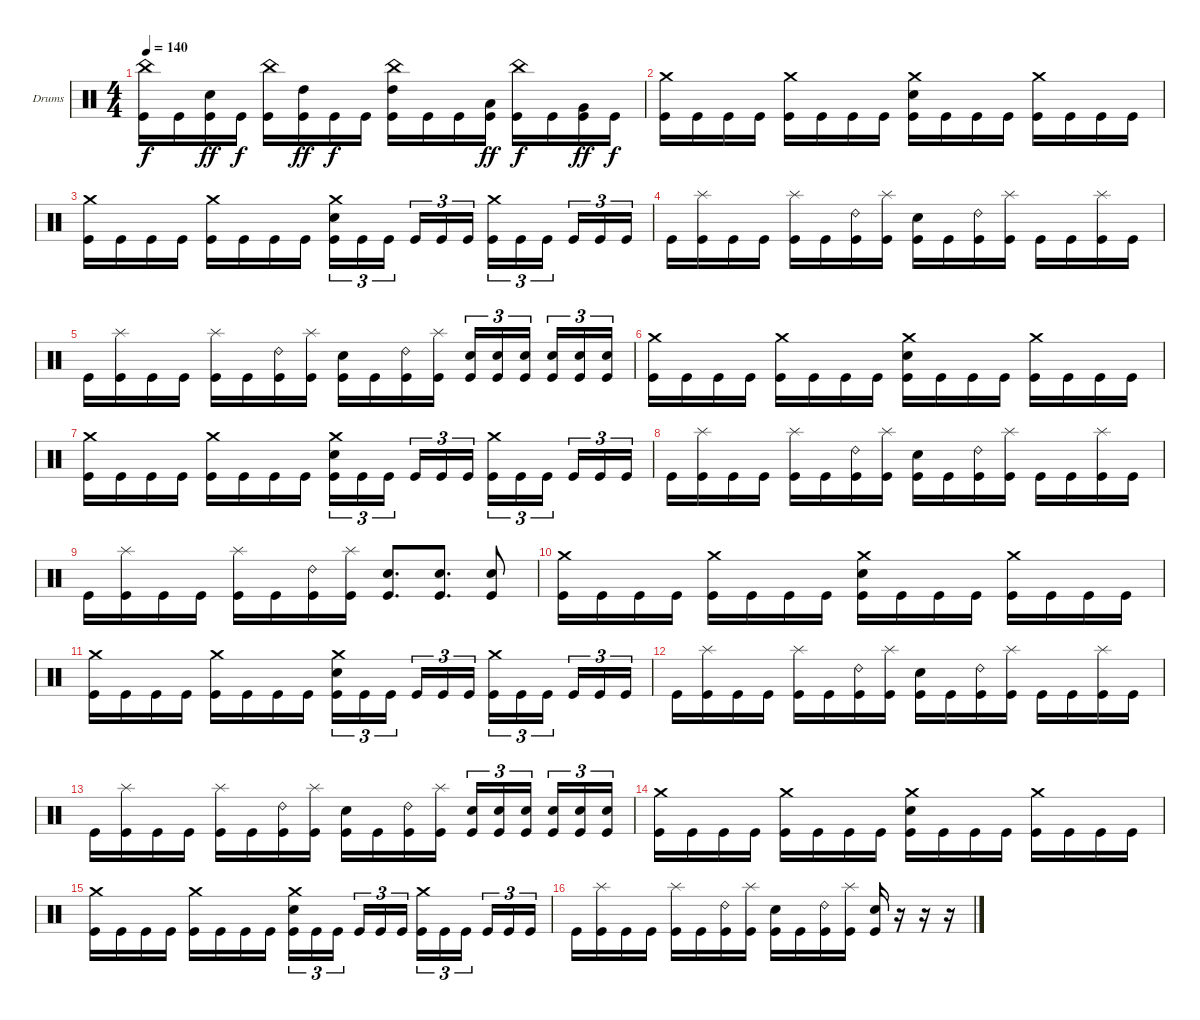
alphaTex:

\defaultSystemsLayout 4
\bracketExtendMode groupsimilarinstruments
\firstSystemTrackNameOrientation horizontal
\otherSystemsTrackNameOrientation horizontal
\track ("Drumkit" "Drums") {instrument percussion}
\staff {score}
\articulation defaults
\ts (4 4)
\tempo 140
\clef neutral
\ks c
("China (hit)" "Kick (hit)").16{dy f} "Kick (hit)".16 ("Snare (hit) 2" "Kick (hit)").16{dy ff} "Kick (hit)".16{dy f} ("China (hit)" "Kick (hit)").16 ("High Tom (hit)" "Kick (hit)").16{dy ff} "Kick (hit)".16{dy f} "Kick (hit)".16 ("China (hit)" "High Tom (hit)" "Kick (hit)").16 "Kick (hit)".16 "Kick (hit)".16 ("Low Tom (hit)" "Kick (hit)").16{dy ff} ("China (hit)" "Kick (hit)").16{dy f} "Kick (hit)".16 ("Very Low Tom (hit)" "Kick (hit)").16{dy ff} "Kick (hit)".16{dy f} |
("Crash medium (hit)" "Kick (hit)").16 "Kick (hit)".16 "Kick (hit)".16 "Kick (hit)".16 ("Crash medium (hit)" "Kick (hit)").16 "Kick (hit)".16 "Kick (hit)".16 "Kick (hit)".16 ("Crash medium (hit)" "Snare (hit) 2" "Kick (hit)").16 "Kick (hit)".16 "Kick (hit)".16 "Kick (hit)".16 ("Crash medium (hit)" "Kick (hit)").16 "Kick (hit)".16 "Kick (hit)".16 "Kick (hit)".16 |
("Crash medium (hit)" "Kick (hit)").16 "Kick (hit)".16 "Kick (hit)".16 "Kick (hit)".16 ("Crash medium (hit)" "Kick (hit)").16 "Kick (hit)".16 "Kick (hit)".16 "Kick (hit)".16 ("Crash medium (hit)" "Snare (hit) 2" "Kick (hit)").16{tu (3 2)} "Kick (hit)".16{tu (3 2)} "Kick (hit)".16{tu (3 2)} "Kick (hit)".16{tu (3 2)} "Kick (hit)".16{tu (3 2)} "Kick (hit)".16{tu (3 2)} ("Crash medium (hit)" "Kick (hit)").16{tu (3 2)} "Kick (hit)".16{tu (3 2)} "Kick (hit)".16{tu (3 2)} "Kick (hit)".16{tu (3 2)} "Kick (hit)".16{tu (3 2)} "Kick (hit)".16{tu (3 2)} |
"Kick (hit)".16 ("Splash (hit)" "Kick (hit)").16 "Kick (hit)".16 "Kick (hit)".16 ("Splash (hit)" "Kick (hit)").16 "Kick (hit)".16 ("Ride (bell) 2" "Kick (hit)").16 ("Splash (hit)" "Kick (hit)").16 ("Snare (hit) 2" "Kick (hit)").16 "Kick (hit)".16 ("Ride (bell) 2" "Kick (hit)").16 ("Splash (hit)" "Kick (hit)").16 "Kick (hit)".16 "Kick (hit)".16 ("Splash (hit)" "Kick (hit)").16 "Kick (hit)".16 |
"Kick (hit)".16 ("Splash (hit)" "Kick (hit)").16 "Kick (hit)".16 "Kick (hit)".16 ("Splash (hit)" "Kick (hit)").16 "Kick (hit)".16 ("Ride (bell) 2" "Kick (hit)").16 ("Splash (hit)" "Kick (hit)").16 ("Snare (hit) 2" "Kick (hit)").16 "Kick (hit)".16 ("Ride (bell) 2" "Kick (hit)").16 ("Splash (hit)" "Kick (hit)").16 ("Snare (hit) 2" "Kick (hit)").16{tu (3 2)} ("Snare (hit) 2" "Kick (hit)").16{tu (3 2)} ("Snare (hit) 2" "Kick (hit)").16{tu (3 2)} ("Snare (hit) 2" "Kick (hit)").16{tu (3 2)} ("Snare (hit) 2" "Kick (hit)").16{tu (3 2)} ("Snare (hit) 2" "Kick (hit)").16{tu (3 2)} |
("Crash medium (hit)" "Kick (hit)").16 "Kick (hit)".16 "Kick (hit)".16 "Kick (hit)".16 ("Crash medium (hit)" "Kick (hit)").16 "Kick (hit)".16 "Kick (hit)".16 "Kick (hit)".16 ("Crash medium (hit)" "Snare (hit) 2" "Kick (hit)").16 "Kick (hit)".16 "Kick (hit)".16 "Kick (hit)".16 ("Crash medium (hit)" "Kick (hit)").16 "Kick (hit)".16 "Kick (hit)".16 "Kick (hit)".16 |
("Crash medium (hit)" "Kick (hit)").16 "Kick (hit)".16 "Kick (hit)".16 "Kick (hit)".16 ("Crash medium (hit)" "Kick (hit)").16 "Kick (hit)".16 "Kick (hit)".16 "Kick (hit)".16 ("Crash medium (hit)" "Snare (hit) 2" "Kick (hit)").16{tu (3 2)} "Kick (hit)".16{tu (3 2)} "Kick (hit)".16{tu (3 2)} "Kick (hit)".16{tu (3 2)} "Kick (hit)".16{tu (3 2)} "Kick (hit)".16{tu (3 2)} ("Crash medium (hit)" "Kick (hit)").16{tu (3 2)} "Kick (hit)".16{tu (3 2)} "Kick (hit)".16{tu (3 2)} "Kick (hit)".16{tu (3 2)} "Kick (hit)".16{tu (3 2)} "Kick (hit)".16{tu (3 2)} |
"Kick (hit)".16 ("Splash (hit)" "Kick (hit)").16 "Kick (hit)".16 "Kick (hit)".16 ("Splash (hit)" "Kick (hit)").16 "Kick (hit)".16 ("Ride (bell) 2" "Kick (hit)").16 ("Splash (hit)" "Kick (hit)").16 ("Snare (hit) 2" "Kick (hit)").16 "Kick (hit)".16 ("Ride (bell) 2" "Kick (hit)").16 ("Splash (hit)" "Kick (hit)").16 "Kick (hit)".16 "Kick (hit)".16 ("Splash (hit)" "Kick (hit)").16 "Kick (hit)".16 |
"Kick (hit)".16 ("Splash (hit)" "Kick (hit)").16 "Kick (hit)".16 "Kick (hit)".16 ("Splash (hit)" "Kick (hit)").16 "Kick (hit)".16 ("Ride (bell) 2" "Kick (hit)").16 ("Splash (hit)" "Kick (hit)").16 ("Snare (hit) 2" "Kick (hit)").8{d} ("Snare (hit) 2" "Kick (hit)").8{d} ("Snare (hit) 2" "Kick (hit)").8 |
("Crash medium (hit)" "Kick (hit)").16 "Kick (hit)".16 "Kick (hit)".16 "Kick (hit)".16 ("Crash medium (hit)" "Kick (hit)").16 "Kick (hit)".16 "Kick (hit)".16 "Kick (hit)".16 ("Crash medium (hit)" "Snare (hit) 2" "Kick (hit)").16 "Kick (hit)".16 "Kick (hit)".16 "Kick (hit)".16 ("Crash medium (hit)" "Kick (hit)").16 "Kick (hit)".16 "Kick (hit)".16 "Kick (hit)".16 |
("Crash medium (hit)" "Kick (hit)").16 "Kick (hit)".16 "Kick (hit)".16 "Kick (hit)".16 ("Crash medium (hit)" "Kick (hit)").16 "Kick (hit)".16 "Kick (hit)".16 "Kick (hit)".16 ("Crash medium (hit)" "Snare (hit) 2" "Kick (hit)").16{tu (3 2)} "Kick (hit)".16{tu (3 2)} "Kick (hit)".16{tu (3 2)} "Kick (hit)".16{tu (3 2)} "Kick (hit)".16{tu (3 2)} "Kick (hit)".16{tu (3 2)} ("Crash medium (hit)" "Kick (hit)").16{tu (3 2)} "Kick (hit)".16{tu (3 2)} "Kick (hit)".16{tu (3 2)} "Kick (hit)".16{tu (3 2)} "Kick (hit)".16{tu (3 2)} "Kick (hit)".16{tu (3 2)} |
"Kick (hit)".16 ("Splash (hit)" "Kick (hit)").16 "Kick (hit)".16 "Kick (hit)".16 ("Splash (hit)" "Kick (hit)").16 "Kick (hit)".16 ("Ride (bell) 2" "Kick (hit)").16 ("Splash (hit)" "Kick (hit)").16 ("Snare (hit) 2" "Kick (hit)").16 "Kick (hit)".16 ("Ride (bell) 2" "Kick (hit)").16 ("Splash (hit)" "Kick (hit)").16 "Kick (hit)".16 "Kick (hit)".16 ("Splash (hit)" "Kick (hit)").16 "Kick (hit)".16 |
"Kick (hit)".16 ("Splash (hit)" "Kick (hit)").16 "Kick (hit)".16 "Kick (hit)".16 ("Splash (hit)" "Kick (hit)").16 "Kick (hit)".16 ("Ride (bell) 2" "Kick (hit)").16 ("Splash (hit)" "Kick (hit)").16 ("Snare (hit) 2" "Kick (hit)").16 "Kick (hit)".16 ("Ride (bell) 2" "Kick (hit)").16 ("Splash (hit)" "Kick (hit)").16 ("Snare (hit) 2" "Kick (hit)").16{tu (3 2)} ("Snare (hit) 2" "Kick (hit)").16{tu (3 2)} ("Snare (hit) 2" "Kick (hit)").16{tu (3 2)} ("Snare (hit) 2" "Kick (hit)").16{tu (3 2)} ("Snare (hit) 2" "Kick (hit)").16{tu (3 2)} ("Snare (hit) 2" "Kick (hit)").16{tu (3 2)} |
("Crash medium (hit)" "Kick (hit)").16 "Kick (hit)".16 "Kick (hit)".16 "Kick (hit)".16 ("Crash medium (hit)" "Kick (hit)").16 "Kick (hit)".16 "Kick (hit)".16 "Kick (hit)".16 ("Crash medium (hit)" "Snare (hit) 2" "Kick (hit)").16 "Kick (hit)".16 "Kick (hit)".16 "Kick (hit)".16 ("Crash medium (hit)" "Kick (hit)").16 "Kick (hit)".16 "Kick (hit)".16 "Kick (hit)".16 |
("Crash medium (hit)" "Kick (hit)").16 "Kick (hit)".16 "Kick (hit)".16 "Kick (hit)".16 ("Crash medium (hit)" "Kick (hit)").16 "Kick (hit)".16 "Kick (hit)".16 "Kick (hit)".16 ("Crash medium (hit)" "Snare (hit) 2" "Kick (hit)").16{tu (3 2)} "Kick (hit)".16{tu (3 2)} "Kick (hit)".16{tu (3 2)} "Kick (hit)".16{tu (3 2)} "Kick (hit)".16{tu (3 2)} "Kick (hit)".16{tu (3 2)} ("Crash medium (hit)" "Kick (hit)").16{tu (3 2)} "Kick (hit)".16{tu (3 2)} "Kick (hit)".16{tu (3 2)} "Kick (hit)".16{tu (3 2)} "Kick (hit)".16{tu (3 2)} "Kick (hit)".16{tu (3 2)} |
"Kick (hit)".16 ("Splash (hit)" "Kick (hit)").16 "Kick (hit)".16 "Kick (hit)".16 ("Splash (hit)" "Kick (hit)").16 "Kick (hit)".16 ("Ride (bell) 2" "Kick (hit)").16 ("Splash (hit)" "Kick (hit)").16 ("Snare (hit) 2" "Kick (hit)").16 "Kick (hit)".16 ("Ride (bell) 2" "Kick (hit)").16 ("Splash (hit)" "Kick (hit)").16 ("Kick (hit)" "Snare (hit) 2").16 r.16 r.16 r.16
